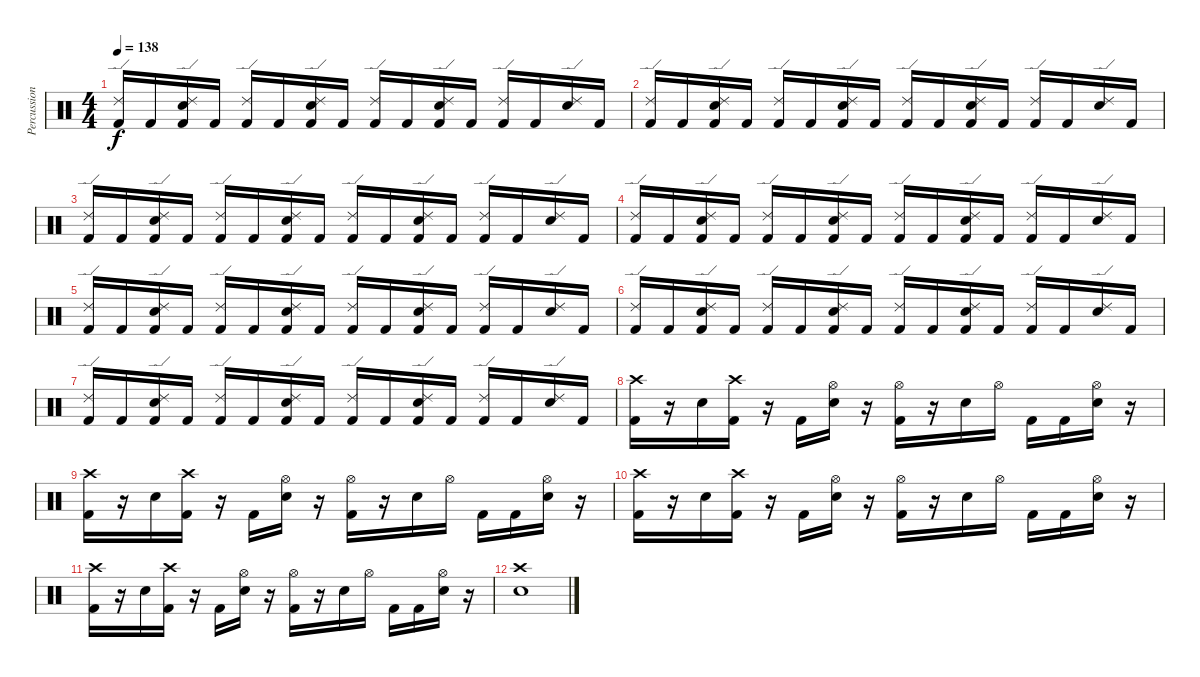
\track ("Percussion" "Percussion") {instrument percussion}
\staff {score}
\articulation defaults
\ts (4 4)
\tempo 138
\clef neutral
\ks c
("Ride (edge) 2" "Kick (hit) 2").16{dy f} "Kick (hit) 2".16 ("Ride (edge) 2" "Electric Snare (hit)" "Kick (hit) 2").16 "Kick (hit) 2".16 ("Ride (edge) 2" "Kick (hit) 2").16 "Kick (hit) 2".16 ("Ride (edge) 2" "Electric Snare (hit)" "Kick (hit) 2").16 "Kick (hit) 2".16 ("Ride (edge) 2" "Kick (hit) 2").16 "Kick (hit) 2".16 ("Ride (edge) 2" "Electric Snare (hit)" "Kick (hit) 2").16 "Kick (hit) 2".16 ("Ride (edge) 2" "Kick (hit) 2").16 "Kick (hit) 2".16 ("Ride (edge) 2" "Electric Snare (hit)").16 "Kick (hit) 2".16 |
("Ride (edge) 2" "Kick (hit) 2").16 "Kick (hit) 2".16 ("Ride (edge) 2" "Electric Snare (hit)" "Kick (hit) 2").16 "Kick (hit) 2".16 ("Ride (edge) 2" "Kick (hit) 2").16 "Kick (hit) 2".16 ("Ride (edge) 2" "Electric Snare (hit)" "Kick (hit) 2").16 "Kick (hit) 2".16 ("Ride (edge) 2" "Kick (hit) 2").16 "Kick (hit) 2".16 ("Ride (edge) 2" "Electric Snare (hit)" "Kick (hit) 2").16 "Kick (hit) 2".16 ("Ride (edge) 2" "Kick (hit) 2").16 "Kick (hit) 2".16 ("Ride (edge) 2" "Electric Snare (hit)").16 "Kick (hit) 2".16 |
("Ride (edge) 2" "Kick (hit) 2").16 "Kick (hit) 2".16 ("Ride (edge) 2" "Electric Snare (hit)" "Kick (hit) 2").16 "Kick (hit) 2".16 ("Ride (edge) 2" "Kick (hit) 2").16 "Kick (hit) 2".16 ("Ride (edge) 2" "Electric Snare (hit)" "Kick (hit) 2").16 "Kick (hit) 2".16 ("Ride (edge) 2" "Kick (hit) 2").16 "Kick (hit) 2".16 ("Ride (edge) 2" "Electric Snare (hit)" "Kick (hit) 2").16 "Kick (hit) 2".16 ("Ride (edge) 2" "Kick (hit) 2").16 "Kick (hit) 2".16 ("Ride (edge) 2" "Electric Snare (hit)").16 "Kick (hit) 2".16 |
("Ride (edge) 2" "Kick (hit) 2").16 "Kick (hit) 2".16 ("Ride (edge) 2" "Electric Snare (hit)" "Kick (hit) 2").16 "Kick (hit) 2".16 ("Ride (edge) 2" "Kick (hit) 2").16 "Kick (hit) 2".16 ("Ride (edge) 2" "Electric Snare (hit)" "Kick (hit) 2").16 "Kick (hit) 2".16 ("Ride (edge) 2" "Kick (hit) 2").16 "Kick (hit) 2".16 ("Ride (edge) 2" "Electric Snare (hit)" "Kick (hit) 2").16 "Kick (hit) 2".16 ("Ride (edge) 2" "Kick (hit) 2").16 "Kick (hit) 2".16 ("Ride (edge) 2" "Electric Snare (hit)").16 "Kick (hit) 2".16 |
("Ride (edge) 2" "Kick (hit) 2").16 "Kick (hit) 2".16 ("Ride (edge) 2" "Electric Snare (hit)" "Kick (hit) 2").16 "Kick (hit) 2".16 ("Ride (edge) 2" "Kick (hit) 2").16 "Kick (hit) 2".16 ("Ride (edge) 2" "Electric Snare (hit)" "Kick (hit) 2").16 "Kick (hit) 2".16 ("Ride (edge) 2" "Kick (hit) 2").16 "Kick (hit) 2".16 ("Ride (edge) 2" "Electric Snare (hit)" "Kick (hit) 2").16 "Kick (hit) 2".16 ("Ride (edge) 2" "Kick (hit) 2").16 "Kick (hit) 2".16 ("Ride (edge) 2" "Electric Snare (hit)").16 "Kick (hit) 2".16 |
("Ride (edge) 2" "Kick (hit) 2").16 "Kick (hit) 2".16 ("Ride (edge) 2" "Electric Snare (hit)" "Kick (hit) 2").16 "Kick (hit) 2".16 ("Ride (edge) 2" "Kick (hit) 2").16 "Kick (hit) 2".16 ("Ride (edge) 2" "Electric Snare (hit)" "Kick (hit) 2").16 "Kick (hit) 2".16 ("Ride (edge) 2" "Kick (hit) 2").16 "Kick (hit) 2".16 ("Ride (edge) 2" "Electric Snare (hit)" "Kick (hit) 2").16 "Kick (hit) 2".16 ("Ride (edge) 2" "Kick (hit) 2").16 "Kick (hit) 2".16 ("Ride (edge) 2" "Electric Snare (hit)").16 "Kick (hit) 2".16 |
("Ride (edge) 2" "Kick (hit) 2").16 "Kick (hit) 2".16 ("Ride (edge) 2" "Electric Snare (hit)" "Kick (hit) 2").16 "Kick (hit) 2".16 ("Ride (edge) 2" "Kick (hit) 2").16 "Kick (hit) 2".16 ("Ride (edge) 2" "Electric Snare (hit)" "Kick (hit) 2").16 "Kick (hit) 2".16 ("Ride (edge) 2" "Kick (hit) 2").16 "Kick (hit) 2".16 ("Ride (edge) 2" "Electric Snare (hit)" "Kick (hit) 2").16 "Kick (hit) 2".16 ("Ride (edge) 2" "Kick (hit) 2").16 "Kick (hit) 2".16 ("Ride (edge) 2" "Electric Snare (hit)").16 "Kick (hit) 2".16 |
("Crash high (hit)" "Kick (hit) 2").16 r.16 "Electric Snare (hit)".16 ("Crash high (hit)" "Kick (hit) 2").16 r.16 "Kick (hit) 2".16 ("Hi-Hat (open)" "Electric Snare (hit)").16 r.16 ("Hi-Hat (open)" "Kick (hit) 2").16 r.16 "Electric Snare (hit)".16 "Hi-Hat (open)".16 "Kick (hit) 2".16 "Kick (hit) 2".16 ("Hi-Hat (open)" "Electric Snare (hit)").16 r.16 |
("Crash high (hit)" "Kick (hit) 2").16 r.16 "Electric Snare (hit)".16 ("Crash high (hit)" "Kick (hit) 2").16 r.16 "Kick (hit) 2".16 ("Hi-Hat (open)" "Electric Snare (hit)").16 r.16 ("Hi-Hat (open)" "Kick (hit) 2").16 r.16 "Electric Snare (hit)".16 "Hi-Hat (open)".16 "Kick (hit) 2".16 "Kick (hit) 2".16 ("Hi-Hat (open)" "Electric Snare (hit)").16 r.16 |
("Crash high (hit)" "Kick (hit) 2").16 r.16 "Electric Snare (hit)".16 ("Crash high (hit)" "Kick (hit) 2").16 r.16 "Kick (hit) 2".16 ("Hi-Hat (open)" "Electric Snare (hit)").16 r.16 ("Hi-Hat (open)" "Kick (hit) 2").16 r.16 "Electric Snare (hit)".16 "Hi-Hat (open)".16 "Kick (hit) 2".16 "Kick (hit) 2".16 ("Hi-Hat (open)" "Electric Snare (hit)").16 r.16 |
("Crash high (hit)" "Kick (hit) 2").16 r.16 "Electric Snare (hit)".16 ("Crash high (hit)" "Kick (hit) 2").16 r.16 "Kick (hit) 2".16 ("Hi-Hat (open)" "Electric Snare (hit)").16 r.16 ("Hi-Hat (open)" "Kick (hit) 2").16 r.16 "Electric Snare (hit)".16 "Hi-Hat (open)".16 "Kick (hit) 2".16 "Kick (hit) 2".16 ("Hi-Hat (open)" "Electric Snare (hit)").16 r.16 |
("Crash high (hit)" "Electric Snare (hit)").1
